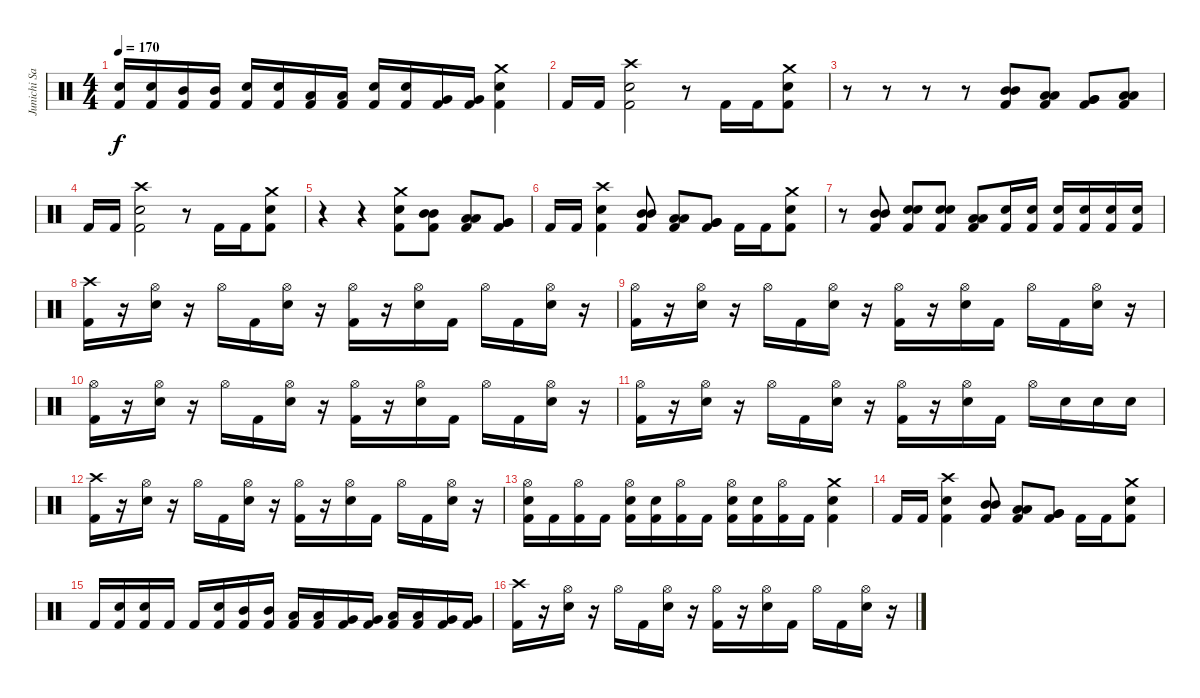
\track ("Junichi Sato" "Junichi Sa") {instrument percussion}
\staff {score}
\articulation defaults
\ts (4 4)
\tempo 170
\clef neutral
\ks c
("Electric Snare (hit)" "Kick (hit) 2").16{dy f} ("Electric Snare (hit)" "Kick (hit) 2").16 ("Mid Tom (hit)" "Kick (hit) 2").16 ("Mid Tom (hit)" "Kick (hit) 2").16 ("Electric Snare (hit)" "Kick (hit) 2").16 ("Electric Snare (hit)" "Kick (hit) 2").16 ("Low Tom (hit)" "Kick (hit) 2").16 ("Low Tom (hit)" "Kick (hit) 2").16 ("Electric Snare (hit)" "Kick (hit) 2").16 ("Electric Snare (hit)" "Kick (hit) 2").16 ("Very Low Tom (hit)" "Kick (hit) 2").16 ("Very Low Tom (hit)" "Kick (hit) 2").16 ("Crash medium (hit)" "Electric Snare (hit)" "Kick (hit) 2").4 |
"Kick (hit) 2".16 "Kick (hit) 2".16 ("Crash high (hit)" "Electric Snare (hit)" "Kick (hit) 2").2 r.8 "Kick (hit) 2".16 "Kick (hit) 2".16 ("Crash medium (hit)" "Electric Snare (hit)" "Kick (hit) 2").8 |
r.8 r.8 r.8 r.8 ("Mid Tom (hit)" "Mid Tom (hit)" "Kick (hit) 2").8 ("Low Tom (hit)" "Low Tom (hit)" "Kick (hit) 2").8 ("Very Low Tom (hit)" "Very Low Tom (hit)" "Kick (hit) 2").8 ("Low Floor Tom (hit)" "Low Floor Tom (hit)" "Kick (hit) 2").8 |
"Kick (hit) 2".16 "Kick (hit) 2".16 ("Crash high (hit)" "Electric Snare (hit)" "Kick (hit) 2").2 r.8 "Kick (hit) 2".16 "Kick (hit) 2".16 ("Crash medium (hit)" "Electric Snare (hit)" "Kick (hit) 2").8 |
r.4 r.4 ("Crash medium (hit)" "Electric Snare (hit)" "Kick (hit) 2").8 ("Mid Tom (hit)" "Mid Tom (hit)" "Kick (hit) 2").8 ("Low Tom (hit)" "Low Tom (hit)" "Kick (hit) 2").8 ("Very Low Tom (hit)" "Very Low Tom (hit)" "Kick (hit) 2").8 |
"Kick (hit) 2".16 "Kick (hit) 2".16 ("Crash high (hit)" "Electric Snare (hit)" "Kick (hit) 2").4 ("Mid Tom (hit)" "Mid Tom (hit)" "Kick (hit) 2").8 ("Low Tom (hit)" "Low Tom (hit)" "Kick (hit) 2").8 ("Very Low Tom (hit)" "Very Low Tom (hit)" "Kick (hit) 2").8 "Kick (hit) 2".16 "Kick (hit) 2".16 ("Crash medium (hit)" "Electric Snare (hit)" "Kick (hit) 2").8 |
r.8 ("Mid Tom (hit)" "Mid Tom (hit)" "Kick (hit) 2").8 ("Electric Snare (hit)" "Electric Snare (hit)" "Kick (hit) 2").8 ("Electric Snare (hit)" "Electric Snare (hit)" "Kick (hit) 2").8 ("Low Tom (hit)" "Low Tom (hit)" "Kick (hit) 2").8 ("Electric Snare (hit)" "Kick (hit) 2").16 ("Electric Snare (hit)" "Kick (hit) 2").16 ("Electric Snare (hit)" "Kick (hit) 2").16 ("Electric Snare (hit)" "Kick (hit) 2").16 ("Electric Snare (hit)" "Kick (hit) 2").16 ("Electric Snare (hit)" "Kick (hit) 2").16 |
("Crash high (hit)" "Kick (hit) 2").16 r.16 ("Hi-Hat (open)" "Electric Snare (hit)").16 r.16 "Hi-Hat (open)".16 "Kick (hit) 2".16 ("Hi-Hat (open)" "Electric Snare (hit)").16 r.16 ("Hi-Hat (open)" "Kick (hit) 2").16 r.16 ("Hi-Hat (open)" "Electric Snare (hit)").16 "Kick (hit) 2".16 "Hi-Hat (open)".16 "Kick (hit) 2".16 ("Hi-Hat (open)" "Electric Snare (hit)").16 r.16 |
("Hi-Hat (open)" "Kick (hit) 2").16 r.16 ("Hi-Hat (open)" "Electric Snare (hit)").16 r.16 "Hi-Hat (open)".16 "Kick (hit) 2".16 ("Hi-Hat (open)" "Electric Snare (hit)").16 r.16 ("Hi-Hat (open)" "Kick (hit) 2").16 r.16 ("Hi-Hat (open)" "Electric Snare (hit)").16 "Kick (hit) 2".16 "Hi-Hat (open)".16 "Kick (hit) 2".16 ("Hi-Hat (open)" "Electric Snare (hit)").16 r.16 |
("Hi-Hat (open)" "Kick (hit) 2").16 r.16 ("Hi-Hat (open)" "Electric Snare (hit)").16 r.16 "Hi-Hat (open)".16 "Kick (hit) 2".16 ("Hi-Hat (open)" "Electric Snare (hit)").16 r.16 ("Hi-Hat (open)" "Kick (hit) 2").16 r.16 ("Hi-Hat (open)" "Electric Snare (hit)").16 "Kick (hit) 2".16 "Hi-Hat (open)".16 "Kick (hit) 2".16 ("Hi-Hat (open)" "Electric Snare (hit)").16 r.16 |
("Hi-Hat (open)" "Kick (hit) 2").16 r.16 ("Hi-Hat (open)" "Electric Snare (hit)").16 r.16 "Hi-Hat (open)".16 "Kick (hit) 2".16 ("Hi-Hat (open)" "Electric Snare (hit)").16 r.16 ("Hi-Hat (open)" "Kick (hit) 2").16 r.16 ("Hi-Hat (open)" "Electric Snare (hit)").16 "Kick (hit) 2".16 "Hi-Hat (open)".16 "Electric Snare (hit)".16 "Electric Snare (hit)".16 "Electric Snare (hit)".16 |
("Crash high (hit)" "Kick (hit) 2").16 r.16 ("Hi-Hat (open)" "Electric Snare (hit)").16 r.16 "Hi-Hat (open)".16 "Kick (hit) 2".16 ("Hi-Hat (open)" "Electric Snare (hit)").16 r.16 ("Hi-Hat (open)" "Kick (hit) 2").16 r.16 ("Hi-Hat (open)" "Electric Snare (hit)").16 "Kick (hit) 2".16 "Hi-Hat (open)".16 "Kick (hit) 2".16 ("Hi-Hat (open)" "Electric Snare (hit)").16 r.16 |
("Hi-Hat (open)" "Electric Snare (hit)" "Kick (hit) 2").16 "Kick (hit) 2".16 ("Hi-Hat (open)" "Kick (hit) 2").16 "Kick (hit) 2".16 ("Hi-Hat (open)" "Electric Snare (hit)" "Kick (hit) 2").16 ("Electric Snare (hit)" "Kick (hit) 2").16 ("Hi-Hat (open)" "Kick (hit) 2").16 "Kick (hit) 2".16 ("Hi-Hat (open)" "Electric Snare (hit)" "Kick (hit) 2").16 ("Electric Snare (hit)" "Kick (hit) 2").16 ("Hi-Hat (open)" "Kick (hit) 2").16 "Kick (hit) 2".16 ("Crash medium (hit)" "Electric Snare (hit)" "Kick (hit) 2").4 |
"Kick (hit) 2".16 "Kick (hit) 2".16 ("Crash high (hit)" "Electric Snare (hit)" "Kick (hit) 2").4 ("Mid Tom (hit)" "Mid Tom (hit)" "Kick (hit) 2").8 ("Low Tom (hit)" "Low Tom (hit)" "Kick (hit) 2").8 ("Very Low Tom (hit)" "Very Low Tom (hit)" "Kick (hit) 2").8 "Kick (hit) 2".16 "Kick (hit) 2".16 ("Crash medium (hit)" "Electric Snare (hit)" "Kick (hit) 2").8 |
"Kick (hit) 2".16 ("Electric Snare (hit)" "Kick (hit) 2").16 ("Electric Snare (hit)" "Kick (hit) 2").16 "Kick (hit) 2".16 "Kick (hit) 2".16 ("Electric Snare (hit)" "Kick (hit) 2").16 ("Mid Tom (hit)" "Kick (hit) 2").16 ("Mid Tom (hit)" "Kick (hit) 2").16 ("Low Tom (hit)" "Kick (hit) 2").16 ("Low Tom (hit)" "Kick (hit) 2").16 ("Very Low Tom (hit)" "Kick (hit) 2").16 ("Very Low Tom (hit)" "Kick (hit) 2").16 ("Low Tom (hit)" "Kick (hit) 2").16 ("Low Tom (hit)" "Kick (hit) 2").16 ("Very Low Tom (hit)" "Kick (hit) 2").16 ("Very Low Tom (hit)" "Kick (hit) 2").16 |
("Crash high (hit)" "Kick (hit) 2").16 r.16 ("Hi-Hat (open)" "Electric Snare (hit)").16 r.16 "Hi-Hat (open)".16 "Kick (hit) 2".16 ("Hi-Hat (open)" "Electric Snare (hit)").16 r.16 ("Hi-Hat (open)" "Kick (hit) 2").16 r.16 ("Hi-Hat (open)" "Electric Snare (hit)").16 "Kick (hit) 2".16 "Hi-Hat (open)".16 "Kick (hit) 2".16 ("Hi-Hat (open)" "Electric Snare (hit)").16 r.16
